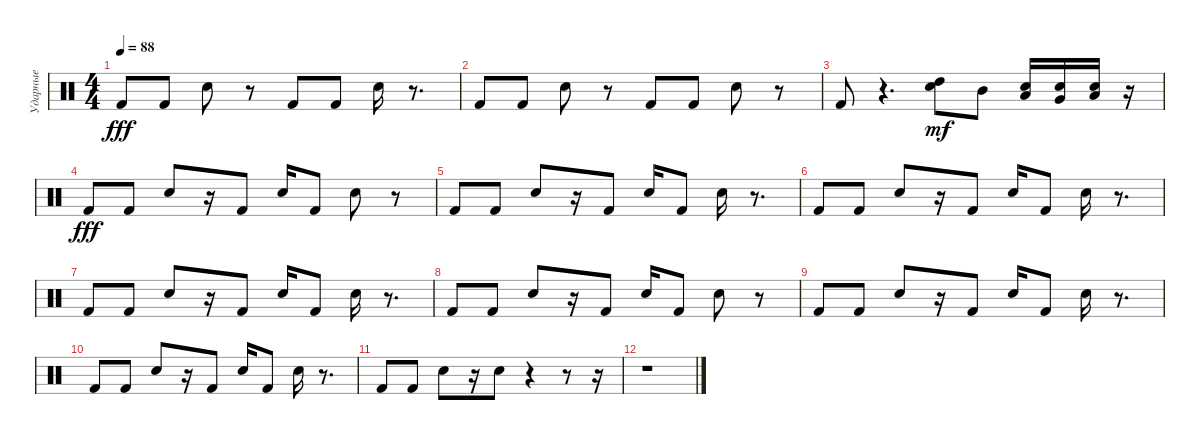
\track ("Ударные" "Ударные") {instrument percussion}
\staff {score}
\articulation defaults
\ts (4 4)
\tempo 88
\clef neutral
\ks c "Kick (hit) 2".8{dy fff} "Kick (hit) 2".8 "Electric Snare (hit)".8
r.8 "Kick (hit) 2".8 "Kick (hit) 2".8 "Electric Snare (hit)".16 r.8{d} |
"Kick (hit) 2".8 "Kick (hit) 2".8 "Electric Snare (hit)".8 r.8 "Kick (hit) 2".8 "Kick (hit) 2".8 "Electric Snare (hit)".8 r.8 |
"Kick (hit) 2".8 r.4{d} ("High Tom (hit)" "Electric Snare (hit)").8{dy mf} "Mid Tom (hit)".8 ("Electric Snare (hit)" "Low Tom (hit)").16 ("Electric Snare (hit)" "Very Low Tom (hit)").16 ("Electric Snare (hit)" "Low Floor Tom (hit)").16 r.16 |
"Kick (hit) 2".8{dy fff} "Kick (hit) 2".8 "Electric Snare (hit)".8 r.16 "Kick (hit) 2".8 "Electric Snare (hit)".16 "Kick (hit) 2".8 "Electric Snare (hit)".8 r.8 |
"Kick (hit) 2".8 "Kick (hit) 2".8 "Electric Snare (hit)".8 r.16 "Kick (hit) 2".8 "Electric Snare (hit)".16 "Kick (hit) 2".8 "Electric Snare (hit)".16 r.8{d} |
"Kick (hit) 2".8 "Kick (hit) 2".8 "Electric Snare (hit)".8 r.16 "Kick (hit) 2".8 "Electric Snare (hit)".16 "Kick (hit) 2".8 "Electric Snare (hit)".16 r.8{d} |
"Kick (hit) 2".8 "Kick (hit) 2".8 "Electric Snare (hit)".8 r.16 "Kick (hit) 2".8 "Electric Snare (hit)".16 "Kick (hit) 2".8 "Electric Snare (hit)".16 r.8{d} |
"Kick (hit) 2".8 "Kick (hit) 2".8 "Electric Snare (hit)".8 r.16 "Kick (hit) 2".8 "Electric Snare (hit)".16 "Kick (hit) 2".8 "Electric Snare (hit)".8 r.8 |
"Kick (hit) 2".8 "Kick (hit) 2".8 "Electric Snare (hit)".8 r.16 "Kick (hit) 2".8 "Electric Snare (hit)".16 "Kick (hit) 2".8 "Electric Snare (hit)".16 r.8{d} |
"Kick (hit) 2".8 "Kick (hit) 2".8 "Electric Snare (hit)".8 r.16 "Kick (hit) 2".8 "Electric Snare (hit)".16 "Kick (hit) 2".8 "Electric Snare (hit)".16 r.8{d} |
"Kick (hit) 2".8 "Kick (hit) 2".8 "Electric Snare (hit)".8 r.16 "Electric Snare (hit)".8 r.4 r.8 r.16 |
r.1
